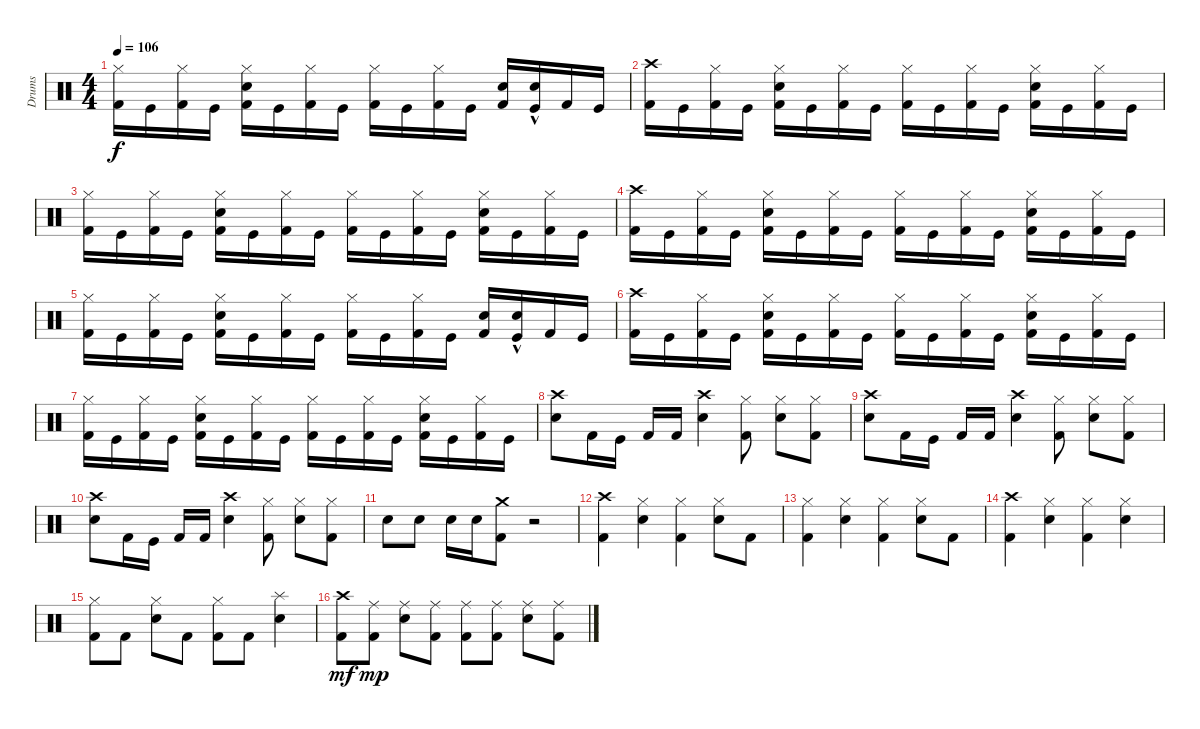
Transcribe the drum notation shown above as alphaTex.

\track ("Drums" "Drums") {instrument percussion}
\staff {score}
\articulation defaults
\ts (4 4)
\tempo 106
\clef neutral
\ks c
("Kick (hit) 2" "Hi-Hat (closed)").16{dy f} "Kick (hit)".16 ("Kick (hit) 2" "Hi-Hat (closed)").16 "Kick (hit)".16 ("Kick (hit) 2" "Hi-Hat (closed)" "Electric Snare (hit)").16 "Kick (hit)".16 ("Hi-Hat (closed)" "Kick (hit) 2").16 "Kick (hit)".16 ("Hi-Hat (closed)" "Kick (hit) 2").16 "Kick (hit)".16 ("Kick (hit) 2" "Hi-Hat (closed)").16 "Kick (hit)".16 ("Kick (hit) 2" "Electric Snare (hit)").16 ("Kick (hit)" "Electric Snare (hit)"{hac}).16 "Kick (hit) 2".16 "Kick (hit)".16 |
("Kick (hit) 2" "Crash high (hit)").16 "Kick (hit)".16 ("Kick (hit) 2" "Hi-Hat (closed)").16 "Kick (hit)".16 ("Kick (hit) 2" "Electric Snare (hit)" "Hi-Hat (closed)").16 "Kick (hit)".16 ("Hi-Hat (closed)" "Kick (hit) 2").16 "Kick (hit)".16 ("Kick (hit) 2" "Hi-Hat (closed)").16 "Kick (hit)".16 ("Kick (hit) 2" "Hi-Hat (closed)").16 "Kick (hit)".16 ("Electric Snare (hit)" "Kick (hit) 2" "Hi-Hat (closed)").16 "Kick (hit)".16 ("Hi-Hat (closed)" "Kick (hit) 2").16 "Kick (hit)".16 |
("Kick (hit) 2" "Hi-Hat (closed)").16 "Kick (hit)".16 ("Hi-Hat (closed)" "Kick (hit) 2").16 "Kick (hit)".16 ("Electric Snare (hit)" "Hi-Hat (closed)" "Kick (hit) 2").16 "Kick (hit)".16 ("Hi-Hat (closed)" "Kick (hit) 2").16 "Kick (hit)".16 ("Hi-Hat (closed)" "Kick (hit) 2").16 "Kick (hit)".16 ("Kick (hit) 2" "Hi-Hat (closed)").16 "Kick (hit)".16 ("Hi-Hat (closed)" "Electric Snare (hit)" "Kick (hit) 2").16 "Kick (hit)".16 ("Kick (hit) 2" "Hi-Hat (closed)").16 "Kick (hit)".16 |
("Crash high (hit)" "Kick (hit) 2").16 "Kick (hit)".16 ("Kick (hit) 2" "Hi-Hat (closed)").16 "Kick (hit)".16 ("Electric Snare (hit)" "Kick (hit) 2" "Hi-Hat (closed)").16 "Kick (hit)".16 ("Kick (hit) 2" "Hi-Hat (closed)").16 "Kick (hit)".16 ("Kick (hit) 2" "Hi-Hat (closed)").16 "Kick (hit)".16 ("Kick (hit) 2" "Hi-Hat (closed)").16 "Kick (hit)".16 ("Electric Snare (hit)" "Kick (hit) 2" "Hi-Hat (closed)").16 "Kick (hit)".16 ("Hi-Hat (closed)" "Kick (hit) 2").16 "Kick (hit)".16 |
("Hi-Hat (closed)" "Kick (hit) 2").16 "Kick (hit)".16 ("Hi-Hat (closed)" "Kick (hit) 2").16 "Kick (hit)".16 ("Electric Snare (hit)" "Kick (hit) 2" "Hi-Hat (closed)").16 "Kick (hit)".16 ("Kick (hit) 2" "Hi-Hat (closed)").16 "Kick (hit)".16 ("Kick (hit) 2" "Hi-Hat (closed)").16 "Kick (hit)".16 ("Hi-Hat (closed)" "Kick (hit) 2").16 "Kick (hit)".16 ("Kick (hit) 2" "Electric Snare (hit)").16 ("Kick (hit)" "Electric Snare (hit)"{hac}).16 "Kick (hit) 2".16 "Kick (hit)".16 |
("Kick (hit) 2" "Crash high (hit)").16 "Kick (hit)".16 ("Kick (hit) 2" "Hi-Hat (closed)").16 "Kick (hit)".16 ("Electric Snare (hit)" "Kick (hit) 2" "Hi-Hat (closed)").16 "Kick (hit)".16 ("Kick (hit) 2" "Hi-Hat (closed)").16 "Kick (hit)".16 ("Kick (hit) 2" "Hi-Hat (closed)").16 "Kick (hit)".16 ("Kick (hit) 2" "Hi-Hat (closed)").16 "Kick (hit)".16 ("Electric Snare (hit)" "Kick (hit) 2" "Hi-Hat (closed)").16 "Kick (hit)".16 ("Hi-Hat (closed)" "Kick (hit) 2").16 "Kick (hit)".16 |
("Kick (hit) 2" "Hi-Hat (closed)").16 "Kick (hit)".16 ("Kick (hit) 2" "Hi-Hat (closed)").16 "Kick (hit)".16 ("Kick (hit) 2" "Electric Snare (hit)" "Hi-Hat (closed)").16 "Kick (hit)".16 ("Kick (hit) 2" "Hi-Hat (closed)").16 "Kick (hit)".16 ("Hi-Hat (closed)" "Kick (hit) 2").16 "Kick (hit)".16 ("Kick (hit) 2" "Hi-Hat (closed)").16 "Kick (hit)".16 ("Kick (hit) 2" "Electric Snare (hit)" "Hi-Hat (closed)").16 "Kick (hit)".16 ("Kick (hit) 2" "Hi-Hat (closed)").16 "Kick (hit)".16 |
("Crash high (hit)" "Electric Snare (hit)").8 "Kick (hit) 2".16 "Kick (hit)".16 "Kick (hit) 2".16 "Kick (hit) 2".16 ("Crash high (hit)" "Electric Snare (hit)").4 ("Hi-Hat (closed)" "Kick (hit) 2").8 ("Hi-Hat (closed)" "Electric Snare (hit)").8 ("Kick (hit) 2" "Hi-Hat (closed)").8 |
("Crash high (hit)" "Electric Snare (hit)").8 "Kick (hit) 2".16 "Kick (hit)".16 "Kick (hit) 2".16 "Kick (hit) 2".16 ("Electric Snare (hit)" "Crash high (hit)").4 ("Kick (hit) 2" "Hi-Hat (closed)").8 ("Electric Snare (hit)" "Hi-Hat (closed)").8 ("Kick (hit) 2" "Hi-Hat (closed)").8 |
("Crash high (hit)" "Electric Snare (hit)").8 "Kick (hit) 2".16 "Kick (hit)".16 "Kick (hit) 2".16 "Kick (hit) 2".16 ("Crash high (hit)" "Electric Snare (hit)").4 ("Kick (hit) 2" "Hi-Hat (closed)").8 ("Electric Snare (hit)" "Hi-Hat (closed)").8 ("Kick (hit) 2" "Hi-Hat (closed)").8 |
"Electric Snare (hit)".8 "Electric Snare (hit)".8 "Electric Snare (hit)".16 "Electric Snare (hit)".16 ("Kick (hit) 2" "Crash medium (hit)").8 r.2 |
("Kick (hit) 2" "Crash high (hit)").4 ("Hi-Hat (closed)" "Electric Snare (hit)").4 ("Hi-Hat (closed)" "Kick (hit) 2").4 ("Electric Snare (hit)" "Hi-Hat (closed)").8 "Kick (hit) 2".8 |
("Hi-Hat (closed)" "Kick (hit) 2").4 ("Electric Snare (hit)" "Hi-Hat (closed)").4 ("Hi-Hat (closed)" "Kick (hit) 2").4 ("Hi-Hat (closed)" "Electric Snare (hit)").8 "Kick (hit) 2".8 |
("Kick (hit) 2" "Crash high (hit)").4 ("Electric Snare (hit)" "Hi-Hat (closed)").4 ("Kick (hit) 2" "Hi-Hat (closed)").4 ("Hi-Hat (closed)" "Electric Snare (hit)").4 |
("Kick (hit) 2" "Hi-Hat (closed)").8 "Kick (hit) 2".8 ("Hi-Hat (closed)" "Electric Snare (hit)").8 "Kick (hit) 2".8 ("Kick (hit) 2" "Hi-Hat (closed)").8 "Kick (hit) 2".8 ("Splash (hit)" "Electric Snare (hit)").4 |
("Crash high (hit)" "Kick (hit) 2").8{dy mf} ("Kick (hit) 2" "Ride (middle)").8{dy mp} ("Electric Snare (hit)" "Ride (middle)").8 ("Ride (middle)" "Kick (hit) 2").8 ("Ride (middle)" "Kick (hit) 2").8 ("Ride (middle)" "Kick (hit) 2").8 ("Ride (middle)" "Electric Snare (hit)").8 ("Ride (middle)" "Kick (hit) 2").8
